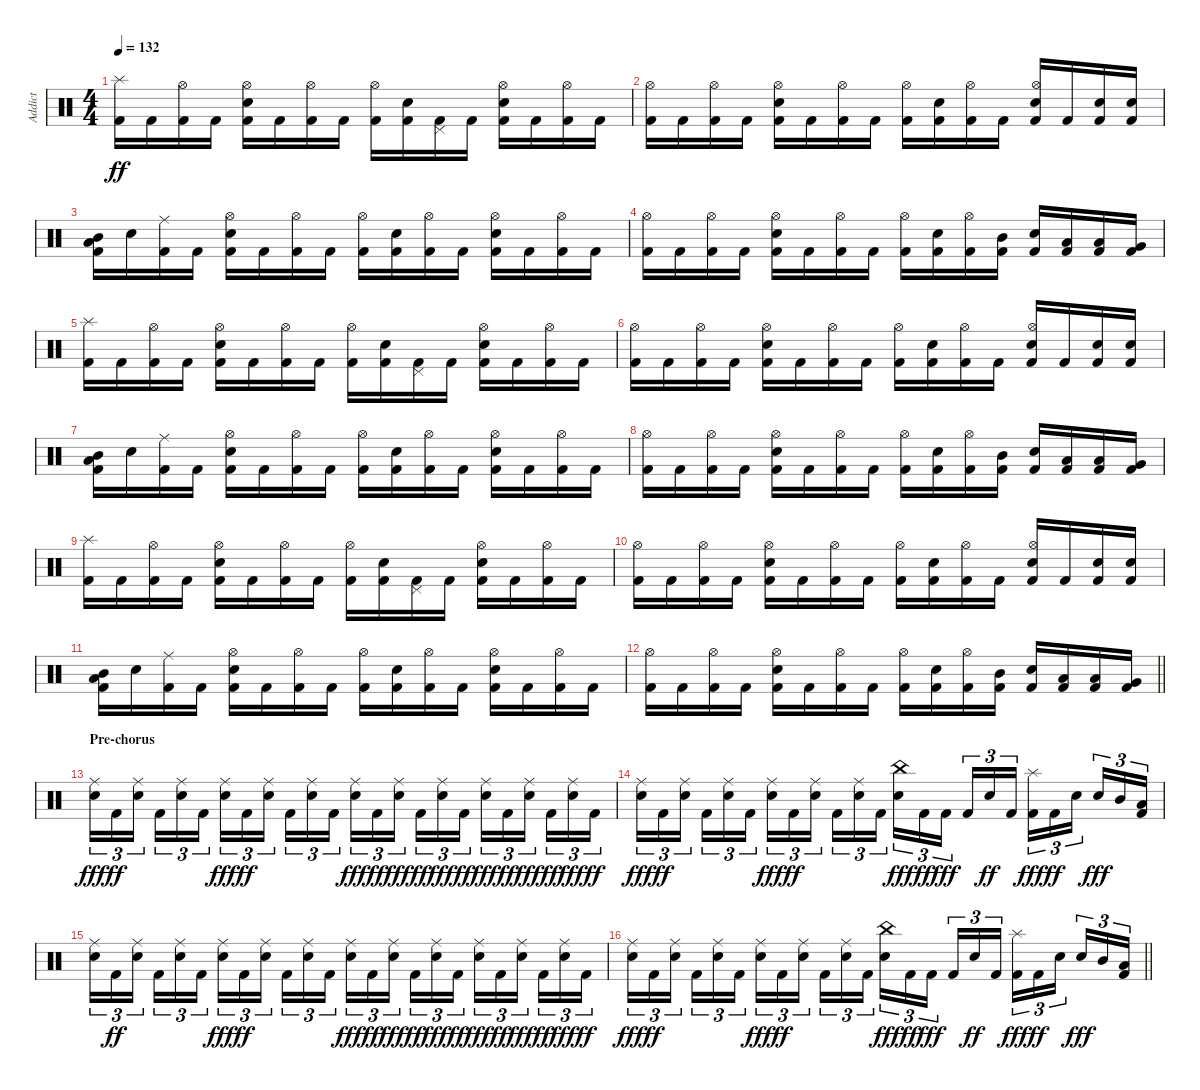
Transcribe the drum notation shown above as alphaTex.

\track ("Addict" "Addict") {instrument percussion}
\staff {score}
\articulation defaults
\ts (4 4)
\tempo 132
\clef neutral
\ks c
("Kick (hit) 2" "Splash (hit)").16{dy ff} "Kick (hit) 2".16 ("Kick (hit) 2" "Hi-Hat (open)").16 "Kick (hit) 2".16 ("Kick (hit) 2" "Snare (hit) 2" "Hi-Hat (open)").16 "Kick (hit) 2".16 ("Kick (hit) 2" "Hi-Hat (open)").16 "Kick (hit) 2".16 ("Kick (hit) 2" "Hi-Hat (open)").16 ("Kick (hit) 2" "Snare (hit) 2").16 ("Kick (hit) 2" "Pedal Hi-Hat (hit)").16 "Kick (hit) 2".16 ("Kick (hit) 2" "Snare (hit) 2" "Hi-Hat (open)").16 "Kick (hit) 2".16 ("Kick (hit) 2" "Hi-Hat (open)").16 "Kick (hit) 2".16 |
("Kick (hit) 2" "Hi-Hat (open)").16 "Kick (hit) 2".16 ("Kick (hit) 2" "Hi-Hat (open)").16 "Kick (hit) 2".16 ("Kick (hit) 2" "Snare (hit) 2" "Hi-Hat (open)").16 "Kick (hit) 2".16 ("Kick (hit) 2" "Hi-Hat (open)").16 "Kick (hit) 2".16 ("Kick (hit) 2" "Hi-Hat (open)").16 ("Kick (hit) 2" "Snare (hit) 2").16 ("Kick (hit) 2" "Hi-Hat (open)").16 "Kick (hit) 2".16 ("Kick (hit) 2" "Snare (hit) 2" "Hi-Hat (open)").16 "Kick (hit) 2".16 ("Kick (hit) 2" "Snare (hit) 2").16 ("Kick (hit) 2" "Snare (hit) 2").16 |
("Kick (hit) 2" "Low Tom (hit)" "Mid Tom (hit)").16 "Snare (hit) 2".16 ("Kick (hit) 2" "Ride (middle)").16 "Kick (hit) 2".16 ("Kick (hit) 2" "Snare (hit) 2" "Hi-Hat (open)").16 "Kick (hit) 2".16 ("Kick (hit) 2" "Hi-Hat (open)").16 "Kick (hit) 2".16 ("Kick (hit) 2" "Hi-Hat (open)").16 ("Kick (hit) 2" "Snare (hit) 2").16 ("Kick (hit) 2" "Hi-Hat (open)").16 "Kick (hit) 2".16 ("Kick (hit) 2" "Snare (hit) 2" "Hi-Hat (open)").16 "Kick (hit) 2".16 ("Kick (hit) 2" "Hi-Hat (open)").16 "Kick (hit) 2".16 |
("Kick (hit) 2" "Hi-Hat (open)").16 "Kick (hit) 2".16 ("Kick (hit) 2" "Hi-Hat (open)").16 "Kick (hit) 2".16 ("Kick (hit) 2" "Snare (hit) 2" "Hi-Hat (open)").16 "Kick (hit) 2".16 ("Kick (hit) 2" "Hi-Hat (open)").16 "Kick (hit) 2".16 ("Kick (hit) 2" "Hi-Hat (open)").16 ("Kick (hit) 2" "Snare (hit) 2").16 ("Kick (hit) 2" "Hi-Hat (open)").16 ("Kick (hit) 2" "Mid Tom (hit)").16 ("Kick (hit) 2" "Snare (hit) 2").16 ("Kick (hit) 2" "Low Tom (hit)").16 ("Kick (hit) 2" "Low Tom (hit)").16 ("Kick (hit) 2" "Very Low Tom (hit)").16 |
("Kick (hit) 2" "Splash (hit)").16 "Kick (hit) 2".16 ("Kick (hit) 2" "Hi-Hat (open)").16 "Kick (hit) 2".16 ("Kick (hit) 2" "Snare (hit) 2" "Hi-Hat (open)").16 "Kick (hit) 2".16 ("Kick (hit) 2" "Hi-Hat (open)").16 "Kick (hit) 2".16 ("Kick (hit) 2" "Hi-Hat (open)").16 ("Kick (hit) 2" "Snare (hit) 2").16 ("Kick (hit) 2" "Pedal Hi-Hat (hit)").16 "Kick (hit) 2".16 ("Kick (hit) 2" "Snare (hit) 2" "Hi-Hat (open)").16 "Kick (hit) 2".16 ("Kick (hit) 2" "Hi-Hat (open)").16 "Kick (hit) 2".16 |
("Kick (hit) 2" "Hi-Hat (open)").16 "Kick (hit) 2".16 ("Kick (hit) 2" "Hi-Hat (open)").16 "Kick (hit) 2".16 ("Kick (hit) 2" "Snare (hit) 2" "Hi-Hat (open)").16 "Kick (hit) 2".16 ("Kick (hit) 2" "Hi-Hat (open)").16 "Kick (hit) 2".16 ("Kick (hit) 2" "Hi-Hat (open)").16 ("Kick (hit) 2" "Snare (hit) 2").16 ("Kick (hit) 2" "Hi-Hat (open)").16 "Kick (hit) 2".16 ("Kick (hit) 2" "Snare (hit) 2" "Hi-Hat (open)").16 "Kick (hit) 2".16 ("Kick (hit) 2" "Snare (hit) 2").16 ("Kick (hit) 2" "Snare (hit) 2").16 |
("Kick (hit) 2" "Low Tom (hit)" "Mid Tom (hit)").16 "Snare (hit) 2".16 ("Kick (hit) 2" "Ride (middle)").16 "Kick (hit) 2".16 ("Kick (hit) 2" "Snare (hit) 2" "Hi-Hat (open)").16 "Kick (hit) 2".16 ("Kick (hit) 2" "Hi-Hat (open)").16 "Kick (hit) 2".16 ("Kick (hit) 2" "Hi-Hat (open)").16 ("Kick (hit) 2" "Snare (hit) 2").16 ("Kick (hit) 2" "Hi-Hat (open)").16 "Kick (hit) 2".16 ("Kick (hit) 2" "Snare (hit) 2" "Hi-Hat (open)").16 "Kick (hit) 2".16 ("Kick (hit) 2" "Hi-Hat (open)").16 "Kick (hit) 2".16 |
("Kick (hit) 2" "Hi-Hat (open)").16 "Kick (hit) 2".16 ("Kick (hit) 2" "Hi-Hat (open)").16 "Kick (hit) 2".16 ("Kick (hit) 2" "Snare (hit) 2" "Hi-Hat (open)").16 "Kick (hit) 2".16 ("Kick (hit) 2" "Hi-Hat (open)").16 "Kick (hit) 2".16 ("Kick (hit) 2" "Hi-Hat (open)").16 ("Kick (hit) 2" "Snare (hit) 2").16 ("Kick (hit) 2" "Hi-Hat (open)").16 ("Kick (hit) 2" "Mid Tom (hit)").16 ("Kick (hit) 2" "Snare (hit) 2").16 ("Kick (hit) 2" "Low Tom (hit)").16 ("Kick (hit) 2" "Low Tom (hit)").16 ("Kick (hit) 2" "Very Low Tom (hit)").16 |
("Kick (hit) 2" "Splash (hit)").16 "Kick (hit) 2".16 ("Kick (hit) 2" "Hi-Hat (open)").16 "Kick (hit) 2".16 ("Kick (hit) 2" "Snare (hit) 2" "Hi-Hat (open)").16 "Kick (hit) 2".16 ("Kick (hit) 2" "Hi-Hat (open)").16 "Kick (hit) 2".16 ("Kick (hit) 2" "Hi-Hat (open)").16 ("Kick (hit) 2" "Snare (hit) 2").16 ("Kick (hit) 2" "Pedal Hi-Hat (hit)").16 "Kick (hit) 2".16 ("Kick (hit) 2" "Snare (hit) 2" "Hi-Hat (open)").16 "Kick (hit) 2".16 ("Kick (hit) 2" "Hi-Hat (open)").16 "Kick (hit) 2".16 |
("Kick (hit) 2" "Hi-Hat (open)").16 "Kick (hit) 2".16 ("Kick (hit) 2" "Hi-Hat (open)").16 "Kick (hit) 2".16 ("Kick (hit) 2" "Snare (hit) 2" "Hi-Hat (open)").16 "Kick (hit) 2".16 ("Kick (hit) 2" "Hi-Hat (open)").16 "Kick (hit) 2".16 ("Kick (hit) 2" "Hi-Hat (open)").16 ("Kick (hit) 2" "Snare (hit) 2").16 ("Kick (hit) 2" "Hi-Hat (open)").16 "Kick (hit) 2".16 ("Kick (hit) 2" "Snare (hit) 2" "Hi-Hat (open)").16 "Kick (hit) 2".16 ("Kick (hit) 2" "Snare (hit) 2").16 ("Kick (hit) 2" "Snare (hit) 2").16 |
("Kick (hit) 2" "Low Tom (hit)" "Mid Tom (hit)").16 "Snare (hit) 2".16 ("Kick (hit) 2" "Ride (middle)").16 "Kick (hit) 2".16 ("Kick (hit) 2" "Snare (hit) 2" "Hi-Hat (open)").16 "Kick (hit) 2".16 ("Kick (hit) 2" "Hi-Hat (open)").16 "Kick (hit) 2".16 ("Kick (hit) 2" "Hi-Hat (open)").16 ("Kick (hit) 2" "Snare (hit) 2").16 ("Kick (hit) 2" "Hi-Hat (open)").16 "Kick (hit) 2".16 ("Kick (hit) 2" "Snare (hit) 2" "Hi-Hat (open)").16 "Kick (hit) 2".16 ("Kick (hit) 2" "Hi-Hat (open)").16 "Kick (hit) 2".16 |
\barLineRight lightlight
("Kick (hit) 2" "Hi-Hat (open)").16 "Kick (hit) 2".16 ("Kick (hit) 2" "Hi-Hat (open)").16 "Kick (hit) 2".16 ("Kick (hit) 2" "Snare (hit) 2" "Hi-Hat (open)").16 "Kick (hit) 2".16 ("Kick (hit) 2" "Hi-Hat (open)").16 "Kick (hit) 2".16 ("Kick (hit) 2" "Hi-Hat (open)").16 ("Kick (hit) 2" "Snare (hit) 2").16 ("Kick (hit) 2" "Hi-Hat (open)").16 ("Kick (hit) 2" "Mid Tom (hit)").16 ("Kick (hit) 2" "Snare (hit) 2").16 ("Kick (hit) 2" "Low Tom (hit)").16 ("Kick (hit) 2" "Low Tom (hit)").16 ("Kick (hit) 2" "Very Low Tom (hit)").16 |
\section ("" "Pre-chorus")
("Snare (hit) 2" "Ride (middle)").16{tu (3 2) dy fff} "Kick (hit) 2".16{tu (3 2) dy ff} ("Snare (hit) 2" "Ride (middle)").16{tu (3 2) beam splitsecondary} "Kick (hit) 2".16{tu (3 2)} ("Snare (hit) 2" "Ride (middle)").16{tu (3 2)} "Kick (hit) 2".16{tu (3 2)} ("Snare (hit) 2" "Ride (middle)").16{tu (3 2) dy fff} "Kick (hit) 2".16{tu (3 2) dy ff} ("Snare (hit) 2" "Ride (middle)").16{tu (3 2) beam splitsecondary} "Kick (hit) 2".16{tu (3 2)} ("Snare (hit) 2" "Ride (middle)").16{tu (3 2)} "Kick (hit) 2".16{tu (3 2)} ("Snare (hit) 2" "Ride (middle)").16{tu (3 2) dy fff} "Kick (hit) 2".16{tu (3 2) dy ff} ("Snare (hit) 2" "Ride (middle)").16{tu (3 2) dy fff beam splitsecondary} "Kick (hit) 2".16{tu (3 2) dy ff} ("Snare (hit) 2" "Ride (middle)").16{tu (3 2) dy fff} "Kick (hit) 2".16{tu (3 2) dy ff} ("Snare (hit) 2" "Ride (middle)").16{tu (3 2) dy fff} "Kick (hit) 2".16{tu (3 2) dy ff} ("Snare (hit) 2" "Ride (middle)").16{tu (3 2) dy fff beam splitsecondary} "Kick (hit) 2".16{tu (3 2) dy ff} ("Snare (hit) 2" "Ride (middle)").16{tu (3 2) dy fff} "Kick (hit) 2".16{tu (3 2) dy ff} |
("Snare (hit) 2" "Ride (middle)").16{tu (3 2) dy fff} "Kick (hit) 2".16{tu (3 2) dy ff} ("Snare (hit) 2" "Ride (middle)").16{tu (3 2) beam splitsecondary} "Kick (hit) 2".16{tu (3 2)} ("Snare (hit) 2" "Ride (middle)").16{tu (3 2)} "Kick (hit) 2".16{tu (3 2)} ("Snare (hit) 2" "Ride (middle)").16{tu (3 2) dy fff} "Kick (hit) 2".16{tu (3 2) dy ff} ("Snare (hit) 2" "Ride (middle)").16{tu (3 2) beam splitsecondary} "Kick (hit) 2".16{tu (3 2)} ("Snare (hit) 2" "Ride (middle)").16{tu (3 2)} "Kick (hit) 2".16{tu (3 2)} ("Snare (hit) 2" "China (hit)").16{tu (3 2) dy fff} "Kick (hit) 2".16{tu (3 2) dy ff} "Kick (hit) 2".16{tu (3 2) dy fff beam splitsecondary} "Kick (hit) 2".16{tu (3 2)} "Snare (hit) 2".16{tu (3 2) dy ff} "Kick (hit) 2".16{tu (3 2)} ("Kick (hit) 2" "Splash (hit)").16{tu (3 2) dy fff} "Kick (hit) 2".16{tu (3 2) dy ff} "Snare (hit) 2".16{tu (3 2) beam splitsecondary} "Snare (hit) 2".16{tu (3 2) dy fff} "Mid Tom (hit)".16{tu (3 2)} ("Kick (hit) 2" "Low Tom (hit)").16{tu (3 2)} |
("Snare (hit) 2" "Ride (middle)").16{tu (3 2)} "Kick (hit) 2".16{tu (3 2) dy ff} ("Snare (hit) 2" "Ride (middle)").16{tu (3 2) beam splitsecondary} "Kick (hit) 2".16{tu (3 2)} ("Snare (hit) 2" "Ride (middle)").16{tu (3 2)} "Kick (hit) 2".16{tu (3 2)} ("Snare (hit) 2" "Ride (middle)").16{tu (3 2) dy fff} "Kick (hit) 2".16{tu (3 2) dy ff} ("Snare (hit) 2" "Ride (middle)").16{tu (3 2) beam splitsecondary} "Kick (hit) 2".16{tu (3 2)} ("Snare (hit) 2" "Ride (middle)").16{tu (3 2)} "Kick (hit) 2".16{tu (3 2)} ("Snare (hit) 2" "Ride (middle)").16{tu (3 2) dy fff} "Kick (hit) 2".16{tu (3 2) dy ff} ("Snare (hit) 2" "Ride (middle)").16{tu (3 2) dy fff beam splitsecondary} "Kick (hit) 2".16{tu (3 2) dy ff} ("Snare (hit) 2" "Ride (middle)").16{tu (3 2) dy fff} "Kick (hit) 2".16{tu (3 2) dy ff} ("Snare (hit) 2" "Ride (middle)").16{tu (3 2) dy fff} "Kick (hit) 2".16{tu (3 2) dy ff} ("Snare (hit) 2" "Ride (middle)").16{tu (3 2) dy fff beam splitsecondary} "Kick (hit) 2".16{tu (3 2) dy ff} ("Snare (hit) 2" "Ride (middle)").16{tu (3 2) dy fff} "Kick (hit) 2".16{tu (3 2) dy ff} |
\barLineRight lightlight
("Snare (hit) 2" "Ride (middle)").16{tu (3 2) dy fff} "Kick (hit) 2".16{tu (3 2) dy ff} ("Snare (hit) 2" "Ride (middle)").16{tu (3 2) beam splitsecondary} "Kick (hit) 2".16{tu (3 2)} ("Snare (hit) 2" "Ride (middle)").16{tu (3 2)} "Kick (hit) 2".16{tu (3 2)} ("Snare (hit) 2" "Ride (middle)").16{tu (3 2) dy fff} "Kick (hit) 2".16{tu (3 2) dy ff} ("Snare (hit) 2" "Ride (middle)").16{tu (3 2) beam splitsecondary} "Kick (hit) 2".16{tu (3 2)} ("Snare (hit) 2" "Ride (middle)").16{tu (3 2)} "Kick (hit) 2".16{tu (3 2)} ("Snare (hit) 2" "China (hit)").16{tu (3 2) dy fff} "Kick (hit) 2".16{tu (3 2) dy ff} "Kick (hit) 2".16{tu (3 2) dy fff beam splitsecondary} "Kick (hit) 2".16{tu (3 2)} "Snare (hit) 2".16{tu (3 2) dy ff} "Kick (hit) 2".16{tu (3 2)} ("Kick (hit) 2" "Splash (hit)").16{tu (3 2) dy fff} "Kick (hit) 2".16{tu (3 2) dy ff} "Snare (hit) 2".16{tu (3 2) beam splitsecondary} "Snare (hit) 2".16{tu (3 2) dy fff} "Mid Tom (hit)".16{tu (3 2)} ("Kick (hit) 2" "Low Tom (hit)").16{tu (3 2)}
